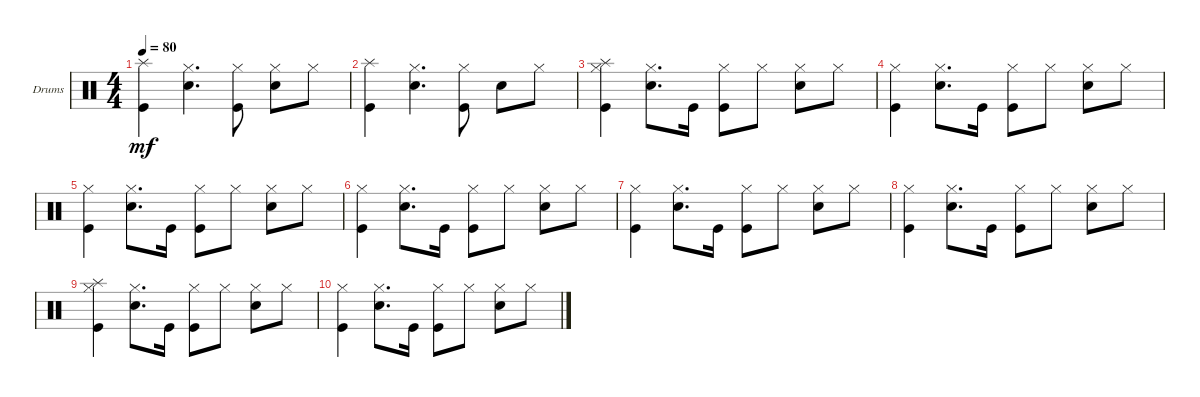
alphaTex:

\defaultSystemsLayout 4
\bracketExtendMode nobrackets
\firstSystemTrackNameOrientation horizontal
\otherSystemsTrackNameOrientation horizontal
\track ("Drumkit" "Drums") {instrument percussion}
\staff {score}
\articulation defaults
\ts (4 4)
\tempo 80
\clef neutral
\ks c
("Splash (hit)" "Kick (hit)").4{dy mf} ("Snare (hit) 2" "Hi-Hat (closed)").4{d} ("Kick (hit)" "Hi-Hat (closed)").8 ("Snare (hit) 2" "Hi-Hat (closed)").8 "Hi-Hat (closed)".8 |
("Splash (hit)" "Kick (hit)").4 ("Snare (hit) 2" "Hi-Hat (closed)").4{d} ("Kick (hit)" "Hi-Hat (closed)").8 "Snare (hit) 2".8 "Hi-Hat (closed)".8 |
("Kick (hit)" "Hi-Hat (closed)" "Splash (hit)").4 ("Snare (hit) 2" "Hi-Hat (closed)").8{d} "Kick (hit)".16 ("Kick (hit)" "Hi-Hat (closed)").8 "Hi-Hat (closed)".8 ("Snare (hit) 2" "Hi-Hat (closed)").8 "Hi-Hat (closed)".8 |
("Kick (hit)" "Hi-Hat (closed)").4 ("Snare (hit) 2" "Hi-Hat (closed)").8{d} "Kick (hit)".16 ("Kick (hit)" "Hi-Hat (closed)").8 "Hi-Hat (closed)".8 ("Snare (hit) 2" "Hi-Hat (closed)").8 "Hi-Hat (closed)".8 |
("Kick (hit)" "Hi-Hat (closed)").4 ("Snare (hit) 2" "Hi-Hat (closed)").8{d} "Kick (hit)".16 ("Kick (hit)" "Hi-Hat (closed)").8 "Hi-Hat (closed)".8 ("Snare (hit) 2" "Hi-Hat (closed)").8 "Hi-Hat (closed)".8 |
("Kick (hit)" "Hi-Hat (closed)").4 ("Snare (hit) 2" "Hi-Hat (closed)").8{d} "Kick (hit)".16 ("Kick (hit)" "Hi-Hat (closed)").8 "Hi-Hat (closed)".8 ("Snare (hit) 2" "Hi-Hat (closed)").8 "Hi-Hat (closed)".8 |
("Kick (hit)" "Hi-Hat (closed)").4 ("Snare (hit) 2" "Hi-Hat (closed)").8{d} "Kick (hit)".16 ("Kick (hit)" "Hi-Hat (closed)").8 "Hi-Hat (closed)".8 ("Snare (hit) 2" "Hi-Hat (closed)").8 "Hi-Hat (closed)".8 |
("Kick (hit)" "Hi-Hat (closed)").4 ("Snare (hit) 2" "Hi-Hat (closed)").8{d} "Kick (hit)".16 ("Kick (hit)" "Hi-Hat (closed)").8 "Hi-Hat (closed)".8 ("Snare (hit) 2" "Hi-Hat (closed)").8 "Hi-Hat (closed)".8 |
("Kick (hit)" "Hi-Hat (closed)" "Splash (hit)").4 ("Snare (hit) 2" "Hi-Hat (closed)").8{d} "Kick (hit)".16 ("Kick (hit)" "Hi-Hat (closed)").8 "Hi-Hat (closed)".8 ("Snare (hit) 2" "Hi-Hat (closed)").8 "Hi-Hat (closed)".8 |
("Kick (hit)" "Hi-Hat (closed)").4 ("Snare (hit) 2" "Hi-Hat (closed)").8{d} "Kick (hit)".16 ("Kick (hit)" "Hi-Hat (closed)").8 "Hi-Hat (closed)".8 ("Snare (hit) 2" "Hi-Hat (closed)").8 "Hi-Hat (closed)".8
